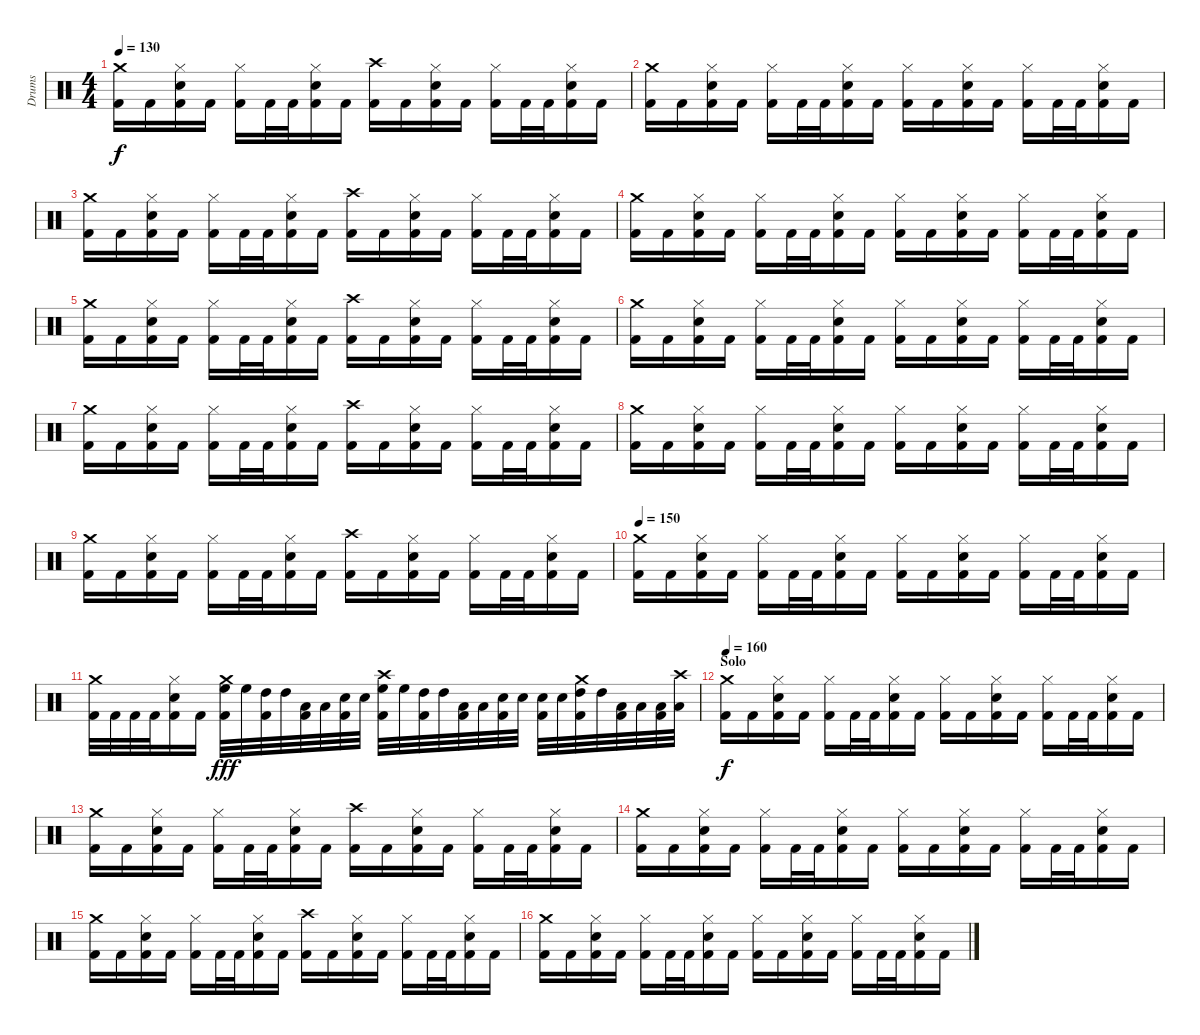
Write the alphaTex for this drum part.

\track ("Drums" "Drums") {instrument percussion}
\staff {score}
\articulation defaults
\ts (4 4)
\tempo 130
\clef neutral
\ks c
("Crash medium (hit)" "Kick (hit) 2").16{dy f} "Kick (hit) 2".16 ("Hi-Hat (closed)" "Electric Snare (hit)" "Kick (hit) 2").16 "Kick (hit) 2".16 ("Hi-Hat (closed)" "Kick (hit) 2").16 "Kick (hit) 2".32 "Kick (hit) 2".32 ("Hi-Hat (closed)" "Electric Snare (hit)" "Kick (hit) 2").16 "Kick (hit) 2".16 ("Crash high (hit)" "Kick (hit) 2").16 "Kick (hit) 2".16 ("Hi-Hat (closed)" "Electric Snare (hit)" "Kick (hit) 2").16 "Kick (hit) 2".16 ("Hi-Hat (closed)" "Kick (hit) 2").16 "Kick (hit) 2".32 "Kick (hit) 2".32 ("Hi-Hat (closed)" "Electric Snare (hit)" "Kick (hit) 2").16 "Kick (hit) 2".16 |
("Crash medium (hit)" "Kick (hit) 2").16 "Kick (hit) 2".16 ("Hi-Hat (closed)" "Electric Snare (hit)" "Kick (hit) 2").16 "Kick (hit) 2".16 ("Hi-Hat (closed)" "Kick (hit) 2").16 "Kick (hit) 2".32 "Kick (hit) 2".32 ("Hi-Hat (closed)" "Electric Snare (hit)" "Kick (hit) 2").16 "Kick (hit) 2".16 ("Hi-Hat (closed)" "Kick (hit) 2").16 "Kick (hit) 2".16 ("Hi-Hat (closed)" "Electric Snare (hit)" "Kick (hit) 2").16 "Kick (hit) 2".16 ("Hi-Hat (closed)" "Kick (hit) 2").16 "Kick (hit) 2".32 "Kick (hit) 2".32 ("Hi-Hat (closed)" "Electric Snare (hit)" "Kick (hit) 2").16 "Kick (hit) 2".16 |
("Crash medium (hit)" "Kick (hit) 2").16 "Kick (hit) 2".16 ("Hi-Hat (closed)" "Electric Snare (hit)" "Kick (hit) 2").16 "Kick (hit) 2".16 ("Hi-Hat (closed)" "Kick (hit) 2").16 "Kick (hit) 2".32 "Kick (hit) 2".32 ("Hi-Hat (closed)" "Electric Snare (hit)" "Kick (hit) 2").16 "Kick (hit) 2".16 ("Crash high (hit)" "Kick (hit) 2").16 "Kick (hit) 2".16 ("Hi-Hat (closed)" "Electric Snare (hit)" "Kick (hit) 2").16 "Kick (hit) 2".16 ("Hi-Hat (closed)" "Kick (hit) 2").16 "Kick (hit) 2".32 "Kick (hit) 2".32 ("Hi-Hat (closed)" "Electric Snare (hit)" "Kick (hit) 2").16 "Kick (hit) 2".16 |
("Crash medium (hit)" "Kick (hit) 2").16 "Kick (hit) 2".16 ("Hi-Hat (closed)" "Electric Snare (hit)" "Kick (hit) 2").16 "Kick (hit) 2".16 ("Hi-Hat (closed)" "Kick (hit) 2").16 "Kick (hit) 2".32 "Kick (hit) 2".32 ("Hi-Hat (closed)" "Electric Snare (hit)" "Kick (hit) 2").16 "Kick (hit) 2".16 ("Hi-Hat (closed)" "Kick (hit) 2").16 "Kick (hit) 2".16 ("Hi-Hat (closed)" "Electric Snare (hit)" "Kick (hit) 2").16 "Kick (hit) 2".16 ("Hi-Hat (closed)" "Kick (hit) 2").16 "Kick (hit) 2".32 "Kick (hit) 2".32 ("Hi-Hat (closed)" "Electric Snare (hit)" "Kick (hit) 2").16 "Kick (hit) 2".16 |
("Crash medium (hit)" "Kick (hit) 2").16 "Kick (hit) 2".16 ("Hi-Hat (closed)" "Electric Snare (hit)" "Kick (hit) 2").16 "Kick (hit) 2".16 ("Hi-Hat (closed)" "Kick (hit) 2").16 "Kick (hit) 2".32 "Kick (hit) 2".32 ("Hi-Hat (closed)" "Electric Snare (hit)" "Kick (hit) 2").16 "Kick (hit) 2".16 ("Crash high (hit)" "Kick (hit) 2").16 "Kick (hit) 2".16 ("Hi-Hat (closed)" "Electric Snare (hit)" "Kick (hit) 2").16 "Kick (hit) 2".16 ("Hi-Hat (closed)" "Kick (hit) 2").16 "Kick (hit) 2".32 "Kick (hit) 2".32 ("Hi-Hat (closed)" "Electric Snare (hit)" "Kick (hit) 2").16 "Kick (hit) 2".16 |
("Crash medium (hit)" "Kick (hit) 2").16 "Kick (hit) 2".16 ("Hi-Hat (closed)" "Electric Snare (hit)" "Kick (hit) 2").16 "Kick (hit) 2".16 ("Hi-Hat (closed)" "Kick (hit) 2").16 "Kick (hit) 2".32 "Kick (hit) 2".32 ("Hi-Hat (closed)" "Electric Snare (hit)" "Kick (hit) 2").16 "Kick (hit) 2".16 ("Hi-Hat (closed)" "Kick (hit) 2").16 "Kick (hit) 2".16 ("Hi-Hat (closed)" "Electric Snare (hit)" "Kick (hit) 2").16 "Kick (hit) 2".16 ("Hi-Hat (closed)" "Kick (hit) 2").16 "Kick (hit) 2".32 "Kick (hit) 2".32 ("Hi-Hat (closed)" "Electric Snare (hit)" "Kick (hit) 2").16 "Kick (hit) 2".16 |
("Crash medium (hit)" "Kick (hit) 2").16 "Kick (hit) 2".16 ("Hi-Hat (closed)" "Electric Snare (hit)" "Kick (hit) 2").16 "Kick (hit) 2".16 ("Hi-Hat (closed)" "Kick (hit) 2").16 "Kick (hit) 2".32 "Kick (hit) 2".32 ("Hi-Hat (closed)" "Electric Snare (hit)" "Kick (hit) 2").16 "Kick (hit) 2".16 ("Crash high (hit)" "Kick (hit) 2").16 "Kick (hit) 2".16 ("Hi-Hat (closed)" "Electric Snare (hit)" "Kick (hit) 2").16 "Kick (hit) 2".16 ("Hi-Hat (closed)" "Kick (hit) 2").16 "Kick (hit) 2".32 "Kick (hit) 2".32 ("Hi-Hat (closed)" "Electric Snare (hit)" "Kick (hit) 2").16 "Kick (hit) 2".16 |
("Crash medium (hit)" "Kick (hit) 2").16 "Kick (hit) 2".16 ("Hi-Hat (closed)" "Electric Snare (hit)" "Kick (hit) 2").16 "Kick (hit) 2".16 ("Hi-Hat (closed)" "Kick (hit) 2").16 "Kick (hit) 2".32 "Kick (hit) 2".32 ("Hi-Hat (closed)" "Electric Snare (hit)" "Kick (hit) 2").16 "Kick (hit) 2".16 ("Hi-Hat (closed)" "Kick (hit) 2").16 "Kick (hit) 2".16 ("Hi-Hat (closed)" "Electric Snare (hit)" "Kick (hit) 2").16 "Kick (hit) 2".16 ("Hi-Hat (closed)" "Kick (hit) 2").16 "Kick (hit) 2".32 "Kick (hit) 2".32 ("Hi-Hat (closed)" "Electric Snare (hit)" "Kick (hit) 2").16 "Kick (hit) 2".16 |
("Crash medium (hit)" "Kick (hit) 2").16 "Kick (hit) 2".16 ("Hi-Hat (closed)" "Electric Snare (hit)" "Kick (hit) 2").16 "Kick (hit) 2".16 ("Hi-Hat (closed)" "Kick (hit) 2").16 "Kick (hit) 2".32 "Kick (hit) 2".32 ("Hi-Hat (closed)" "Electric Snare (hit)" "Kick (hit) 2").16 "Kick (hit) 2".16 ("Crash high (hit)" "Kick (hit) 2").16 "Kick (hit) 2".16 ("Hi-Hat (closed)" "Electric Snare (hit)" "Kick (hit) 2").16 "Kick (hit) 2".16 ("Hi-Hat (closed)" "Kick (hit) 2").16 "Kick (hit) 2".32 "Kick (hit) 2".32 ("Hi-Hat (closed)" "Electric Snare (hit)" "Kick (hit) 2").16 "Kick (hit) 2".16 |
\tempo 150
("Crash medium (hit)" "Kick (hit) 2").16 "Kick (hit) 2".16 ("Hi-Hat (closed)" "Electric Snare (hit)" "Kick (hit) 2").16 "Kick (hit) 2".16 ("Hi-Hat (closed)" "Kick (hit) 2").16 "Kick (hit) 2".32 "Kick (hit) 2".32 ("Hi-Hat (closed)" "Electric Snare (hit)" "Kick (hit) 2").16 "Kick (hit) 2".16 ("Hi-Hat (closed)" "Kick (hit) 2").16 "Kick (hit) 2".16 ("Hi-Hat (closed)" "Electric Snare (hit)" "Kick (hit) 2").16 "Kick (hit) 2".16 ("Hi-Hat (closed)" "Kick (hit) 2").16 "Kick (hit) 2".32 "Kick (hit) 2".32 ("Hi-Hat (closed)" "Electric Snare (hit)" "Kick (hit) 2").16 "Kick (hit) 2".16 |
("Crash medium (hit)" "Kick (hit) 2").32 "Kick (hit) 2".32 "Kick (hit) 2".32 "Kick (hit) 2".32 ("Hi-Hat (closed)" "Electric Snare (hit)" "Kick (hit) 2").16 "Kick (hit) 2".16 ("Crash medium (hit)" "High Floor Tom (hit)" "Kick (hit) 2").32{dy fff} "High Floor Tom (hit)".32 ("High Tom (hit)" "Kick (hit) 2").32 "High Tom (hit)".32 ("Low Tom (hit)" "Kick (hit) 2").32 "Low Tom (hit)".32 ("Electric Snare (hit)" "Kick (hit) 2").32 "Electric Snare (hit)".32 ("Crash high (hit)" "High Floor Tom (hit)" "Kick (hit) 2").32 "High Floor Tom (hit)".32 ("High Tom (hit)" "Kick (hit) 2").32 "High Tom (hit)".32 ("Low Tom (hit)" "Kick (hit) 2").32 "Low Tom (hit)".32 ("Electric Snare (hit)" "Kick (hit) 2").32 "Electric Snare (hit)".32 ("Electric Snare (hit)" "Kick (hit) 2").32 "Electric Snare (hit)".32 ("Crash medium (hit)" "High Tom (hit)" "Kick (hit) 2").32 "High Tom (hit)".32 ("Low Tom (hit)" "Kick (hit) 2").32 "Low Tom (hit)".32 ("Low Floor Tom (hit)" "Kick (hit) 2").32 ("Crash high (hit)" "Low Floor Tom (hit)").32 |
\section ("" "Solo")
\tempo 160
("Crash medium (hit)" "Kick (hit) 2").16{dy f} "Kick (hit) 2".16 ("Hi-Hat (closed)" "Electric Snare (hit)" "Kick (hit) 2").16 "Kick (hit) 2".16 ("Hi-Hat (closed)" "Kick (hit) 2").16 "Kick (hit) 2".32 "Kick (hit) 2".32 ("Hi-Hat (closed)" "Electric Snare (hit)" "Kick (hit) 2").16 "Kick (hit) 2".16 ("Hi-Hat (closed)" "Kick (hit) 2").16 "Kick (hit) 2".16 ("Hi-Hat (closed)" "Electric Snare (hit)" "Kick (hit) 2").16 "Kick (hit) 2".16 ("Hi-Hat (closed)" "Kick (hit) 2").16 "Kick (hit) 2".32 "Kick (hit) 2".32 ("Hi-Hat (closed)" "Electric Snare (hit)" "Kick (hit) 2").16 "Kick (hit) 2".16 |
("Crash medium (hit)" "Kick (hit) 2").16 "Kick (hit) 2".16 ("Hi-Hat (closed)" "Electric Snare (hit)" "Kick (hit) 2").16 "Kick (hit) 2".16 ("Hi-Hat (closed)" "Kick (hit) 2").16 "Kick (hit) 2".32 "Kick (hit) 2".32 ("Hi-Hat (closed)" "Electric Snare (hit)" "Kick (hit) 2").16 "Kick (hit) 2".16 ("Crash high (hit)" "Kick (hit) 2").16 "Kick (hit) 2".16 ("Hi-Hat (closed)" "Electric Snare (hit)" "Kick (hit) 2").16 "Kick (hit) 2".16 ("Hi-Hat (closed)" "Kick (hit) 2").16 "Kick (hit) 2".32 "Kick (hit) 2".32 ("Hi-Hat (closed)" "Electric Snare (hit)" "Kick (hit) 2").16 "Kick (hit) 2".16 |
("Crash medium (hit)" "Kick (hit) 2").16 "Kick (hit) 2".16 ("Hi-Hat (closed)" "Electric Snare (hit)" "Kick (hit) 2").16 "Kick (hit) 2".16 ("Hi-Hat (closed)" "Kick (hit) 2").16 "Kick (hit) 2".32 "Kick (hit) 2".32 ("Hi-Hat (closed)" "Electric Snare (hit)" "Kick (hit) 2").16 "Kick (hit) 2".16 ("Hi-Hat (closed)" "Kick (hit) 2").16 "Kick (hit) 2".16 ("Hi-Hat (closed)" "Electric Snare (hit)" "Kick (hit) 2").16 "Kick (hit) 2".16 ("Hi-Hat (closed)" "Kick (hit) 2").16 "Kick (hit) 2".32 "Kick (hit) 2".32 ("Hi-Hat (closed)" "Electric Snare (hit)" "Kick (hit) 2").16 "Kick (hit) 2".16 |
("Crash medium (hit)" "Kick (hit) 2").16 "Kick (hit) 2".16 ("Hi-Hat (closed)" "Electric Snare (hit)" "Kick (hit) 2").16 "Kick (hit) 2".16 ("Hi-Hat (closed)" "Kick (hit) 2").16 "Kick (hit) 2".32 "Kick (hit) 2".32 ("Hi-Hat (closed)" "Electric Snare (hit)" "Kick (hit) 2").16 "Kick (hit) 2".16 ("Crash high (hit)" "Kick (hit) 2").16 "Kick (hit) 2".16 ("Hi-Hat (closed)" "Electric Snare (hit)" "Kick (hit) 2").16 "Kick (hit) 2".16 ("Hi-Hat (closed)" "Kick (hit) 2").16 "Kick (hit) 2".32 "Kick (hit) 2".32 ("Hi-Hat (closed)" "Electric Snare (hit)" "Kick (hit) 2").16 "Kick (hit) 2".16 |
("Crash medium (hit)" "Kick (hit) 2").16 "Kick (hit) 2".16 ("Hi-Hat (closed)" "Electric Snare (hit)" "Kick (hit) 2").16 "Kick (hit) 2".16 ("Hi-Hat (closed)" "Kick (hit) 2").16 "Kick (hit) 2".32 "Kick (hit) 2".32 ("Hi-Hat (closed)" "Electric Snare (hit)" "Kick (hit) 2").16 "Kick (hit) 2".16 ("Hi-Hat (closed)" "Kick (hit) 2").16 "Kick (hit) 2".16 ("Hi-Hat (closed)" "Electric Snare (hit)" "Kick (hit) 2").16 "Kick (hit) 2".16 ("Hi-Hat (closed)" "Kick (hit) 2").16 "Kick (hit) 2".32 "Kick (hit) 2".32 ("Hi-Hat (closed)" "Electric Snare (hit)" "Kick (hit) 2").16 "Kick (hit) 2".16
